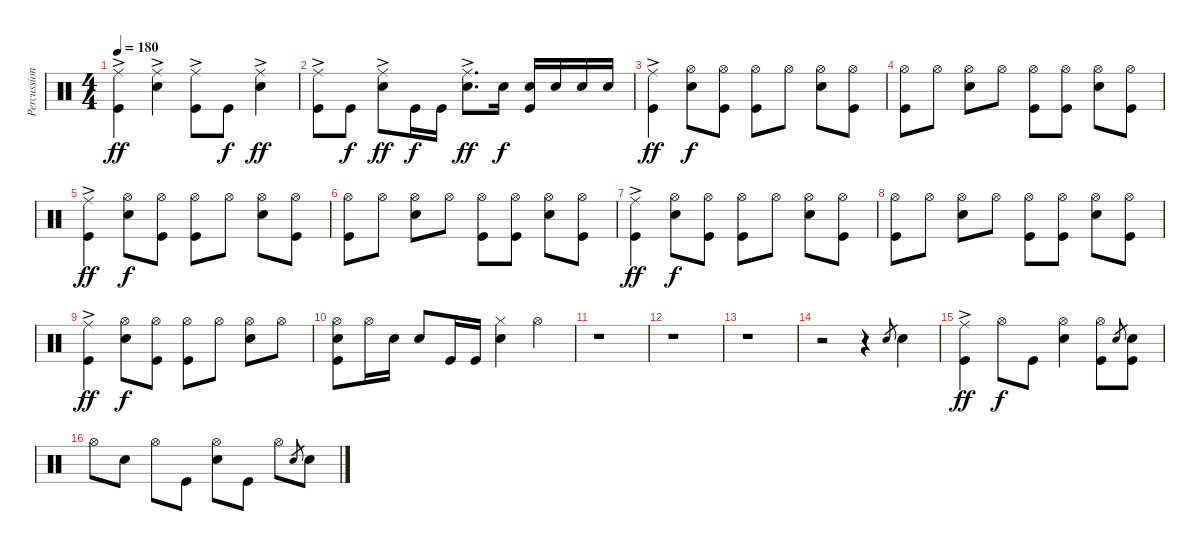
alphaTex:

\track ("Percussion" "Percussion") {instrument percussion}
\staff {score}
\articulation defaults
\ts (4 4)
\tempo 180
\clef neutral
\ks c
("Ride (middle)"{ac} "Kick (hit)").4{dy ff} ("Ride (middle)"{ac} "Snare (hit) 2").4 ("Ride (middle)"{ac} "Kick (hit)").8 "Kick (hit)".8{dy f} ("Ride (middle)"{ac} "Snare (hit) 2").4{dy ff} |
("Ride (middle)"{ac} "Kick (hit)").8 "Kick (hit)".8{dy f} ("Ride (middle)"{ac} "Snare (hit) 2").8{dy ff} "Kick (hit)".16{dy f} "Kick (hit)".16 ("Ride (middle)"{ac} "Snare (hit) 2").8{d dy ff} "Snare (hit) 2".16{dy f} ("Snare (hit) 2" "Kick (hit)").16 "Snare (hit) 2".16 "Snare (hit) 2".16 "Snare (hit) 2".16 |
("Ride (middle)"{ac} "Kick (hit)").4{dy ff} ("Hi-Hat (open)" "Snare (hit) 2").8{dy f} ("Hi-Hat (open)" "Kick (hit)").8 ("Hi-Hat (open)" "Kick (hit)").8 "Hi-Hat (open)".8 ("Hi-Hat (open)" "Snare (hit) 2").8 ("Hi-Hat (open)" "Kick (hit)").8 |
("Hi-Hat (open)" "Kick (hit)").8 "Hi-Hat (open)".8 ("Hi-Hat (open)" "Snare (hit) 2").8 "Hi-Hat (open)".8 ("Hi-Hat (open)" "Kick (hit)").8 ("Hi-Hat (open)" "Kick (hit)").8 ("Hi-Hat (open)" "Snare (hit) 2").8 ("Hi-Hat (open)" "Kick (hit)").8 |
("Ride (middle)"{ac} "Kick (hit)").4{dy ff} ("Hi-Hat (open)" "Snare (hit) 2").8{dy f} ("Hi-Hat (open)" "Kick (hit)").8 ("Hi-Hat (open)" "Kick (hit)").8 "Hi-Hat (open)".8 ("Hi-Hat (open)" "Snare (hit) 2").8 ("Hi-Hat (open)" "Kick (hit)").8 |
("Hi-Hat (open)" "Kick (hit)").8 "Hi-Hat (open)".8 ("Hi-Hat (open)" "Snare (hit) 2").8 "Hi-Hat (open)".8 ("Hi-Hat (open)" "Kick (hit)").8 ("Hi-Hat (open)" "Kick (hit)").8 ("Hi-Hat (open)" "Snare (hit) 2").8 ("Hi-Hat (open)" "Kick (hit)").8 |
("Ride (middle)"{ac} "Kick (hit)").4{dy ff} ("Hi-Hat (open)" "Snare (hit) 2").8{dy f} ("Hi-Hat (open)" "Kick (hit)").8 ("Hi-Hat (open)" "Kick (hit)").8 "Hi-Hat (open)".8 ("Hi-Hat (open)" "Snare (hit) 2").8 ("Hi-Hat (open)" "Kick (hit)").8 |
("Hi-Hat (open)" "Kick (hit)").8 "Hi-Hat (open)".8 ("Hi-Hat (open)" "Snare (hit) 2").8 "Hi-Hat (open)".8 ("Hi-Hat (open)" "Kick (hit)").8 ("Hi-Hat (open)" "Kick (hit)").8 ("Hi-Hat (open)" "Snare (hit) 2").8 ("Hi-Hat (open)" "Kick (hit)").8 |
("Ride (middle)"{ac} "Kick (hit)").4{dy ff} ("Hi-Hat (open)" "Snare (hit) 2").8{dy f} ("Hi-Hat (open)" "Kick (hit)").8 ("Hi-Hat (open)" "Kick (hit)").8 "Hi-Hat (open)".8 ("Hi-Hat (open)" "Snare (hit) 2").8 "Hi-Hat (open)".8 |
("Hi-Hat (open)" "Snare (hit) 2" "Kick (hit)").8 "Hi-Hat (open)".16 "Snare (hit) 2".16 "Snare (hit) 2".8 "Kick (hit)".16 "Kick (hit)".16 ("Hi-Hat (closed)" "Snare (hit) 2").4 "Hi-Hat (open)".4 |
r.1 |
r.1 |
r.1 |
r.2 r.4 "Snare (hit) 2".8{gr} "Snare (hit) 2".4 |
("Ride (middle)"{ac} "Kick (hit)").4{dy ff} "Hi-Hat (open)".8{dy f} "Kick (hit)".8 ("Hi-Hat (open)" "Snare (hit) 2").4 ("Hi-Hat (open)" "Kick (hit)").8 "Snare (hit) 2".8{gr} ("Snare (hit) 2" "Kick (hit)").8 |
"Hi-Hat (open)".8 "Snare (hit) 2".8 "Hi-Hat (open)".8 "Kick (hit)".8 ("Hi-Hat (open)" "Snare (hit) 2").8 "Kick (hit)".8 "Hi-Hat (open)".8 "Snare (hit) 2".8{gr} "Snare (hit) 2".8
